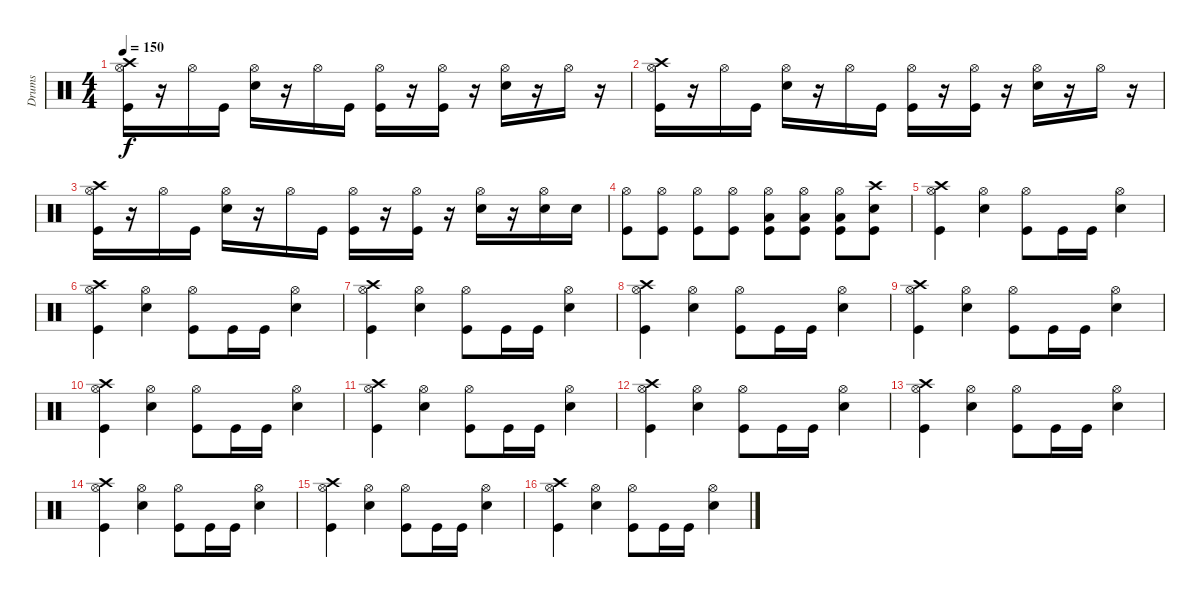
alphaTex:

\track ("Drums" "Drums") {instrument percussion}
\staff {score}
\articulation defaults
\ts (4 4)
\tempo 150
\clef neutral
\ks c
("Crash high (hit)" "Hi-Hat (open)" "Kick (hit)").16{dy f} r.16 "Hi-Hat (open)".16 "Kick (hit)".16 ("Hi-Hat (open)" "Electric Snare (hit)").16 r.16 "Hi-Hat (open)".16 "Kick (hit)".16 ("Hi-Hat (open)" "Kick (hit)").16 r.16 ("Hi-Hat (open)" "Kick (hit)").16 r.16 ("Hi-Hat (open)" "Electric Snare (hit)").16 r.16 "Hi-Hat (open)".16 r.16 |
("Crash high (hit)" "Hi-Hat (open)" "Kick (hit)").16 r.16 "Hi-Hat (open)".16 "Kick (hit)".16 ("Hi-Hat (open)" "Electric Snare (hit)").16 r.16 "Hi-Hat (open)".16 "Kick (hit)".16 ("Hi-Hat (open)" "Kick (hit)").16 r.16 ("Hi-Hat (open)" "Kick (hit)").16 r.16 ("Hi-Hat (open)" "Electric Snare (hit)").16 r.16 "Hi-Hat (open)".16 r.16 |
("Crash high (hit)" "Hi-Hat (open)" "Kick (hit)").16 r.16 "Hi-Hat (open)".16 "Kick (hit)".16 ("Hi-Hat (open)" "Electric Snare (hit)").16 r.16 "Hi-Hat (open)".16 "Kick (hit)".16 ("Hi-Hat (open)" "Kick (hit)").16 r.16 ("Hi-Hat (open)" "Kick (hit)").16 r.16 ("Hi-Hat (open)" "Electric Snare (hit)").16 r.16 ("Hi-Hat (open)" "Electric Snare (hit)").16 "Electric Snare (hit)".16 |
("Hi-Hat (open)" "Kick (hit)").8{volume 8} ("Hi-Hat (open)" "Kick (hit)").8{volume 13} ("Hi-Hat (open)" "Kick (hit)").8 ("Hi-Hat (open)" "Kick (hit)").8 ("Hi-Hat (open)" "Low Floor Tom (hit)" "Kick (hit)").8 ("Hi-Hat (open)" "Low Floor Tom (hit)" "Kick (hit)").8 ("Hi-Hat (open)" "Low Floor Tom (hit)" "Kick (hit)").8 ("Crash high (hit)" "Electric Snare (hit)" "Kick (hit)").8 |
("Hi-Hat (open)" "Crash high (hit)" "Kick (hit)").4 ("Hi-Hat (open)" "Electric Snare (hit)").4 ("Hi-Hat (open)" "Kick (hit)").8 "Kick (hit)".16 "Kick (hit)".16 ("Hi-Hat (open)" "Electric Snare (hit)").4 |
("Hi-Hat (open)" "Crash high (hit)" "Kick (hit)").4 ("Hi-Hat (open)" "Electric Snare (hit)").4 ("Hi-Hat (open)" "Kick (hit)").8 "Kick (hit)".16 "Kick (hit)".16 ("Hi-Hat (open)" "Electric Snare (hit)").4 |
("Hi-Hat (open)" "Crash high (hit)" "Kick (hit)").4 ("Hi-Hat (open)" "Electric Snare (hit)").4 ("Hi-Hat (open)" "Kick (hit)").8 "Kick (hit)".16 "Kick (hit)".16 ("Hi-Hat (open)" "Electric Snare (hit)").4 |
("Hi-Hat (open)" "Crash high (hit)" "Kick (hit)").4 ("Hi-Hat (open)" "Electric Snare (hit)").4 ("Hi-Hat (open)" "Kick (hit)").8 "Kick (hit)".16 "Kick (hit)".16 ("Hi-Hat (open)" "Electric Snare (hit)").4 |
("Hi-Hat (open)" "Crash high (hit)" "Kick (hit)").4 ("Hi-Hat (open)" "Electric Snare (hit)").4 ("Hi-Hat (open)" "Kick (hit)").8 "Kick (hit)".16 "Kick (hit)".16 ("Hi-Hat (open)" "Electric Snare (hit)").4 |
("Hi-Hat (open)" "Crash high (hit)" "Kick (hit)").4 ("Hi-Hat (open)" "Electric Snare (hit)").4 ("Hi-Hat (open)" "Kick (hit)").8 "Kick (hit)".16 "Kick (hit)".16 ("Hi-Hat (open)" "Electric Snare (hit)").4 |
("Hi-Hat (open)" "Crash high (hit)" "Kick (hit)").4 ("Hi-Hat (open)" "Electric Snare (hit)").4 ("Hi-Hat (open)" "Kick (hit)").8 "Kick (hit)".16 "Kick (hit)".16 ("Hi-Hat (open)" "Electric Snare (hit)").4 |
("Hi-Hat (open)" "Crash high (hit)" "Kick (hit)").4 ("Hi-Hat (open)" "Electric Snare (hit)").4 ("Hi-Hat (open)" "Kick (hit)").8 "Kick (hit)".16 "Kick (hit)".16 ("Hi-Hat (open)" "Electric Snare (hit)").4 |
("Hi-Hat (open)" "Crash high (hit)" "Kick (hit)").4 ("Hi-Hat (open)" "Electric Snare (hit)").4 ("Hi-Hat (open)" "Kick (hit)").8 "Kick (hit)".16 "Kick (hit)".16 ("Hi-Hat (open)" "Electric Snare (hit)").4 |
("Hi-Hat (open)" "Crash high (hit)" "Kick (hit)").4 ("Hi-Hat (open)" "Electric Snare (hit)").4 ("Hi-Hat (open)" "Kick (hit)").8 "Kick (hit)".16 "Kick (hit)".16 ("Hi-Hat (open)" "Electric Snare (hit)").4 |
("Hi-Hat (open)" "Crash high (hit)" "Kick (hit)").4 ("Hi-Hat (open)" "Electric Snare (hit)").4 ("Hi-Hat (open)" "Kick (hit)").8 "Kick (hit)".16 "Kick (hit)".16 ("Hi-Hat (open)" "Electric Snare (hit)").4 |
("Hi-Hat (open)" "Crash high (hit)" "Kick (hit)").4 ("Hi-Hat (open)" "Electric Snare (hit)").4 ("Hi-Hat (open)" "Kick (hit)").8 "Kick (hit)".16 "Kick (hit)".16 ("Hi-Hat (open)" "Electric Snare (hit)").4
